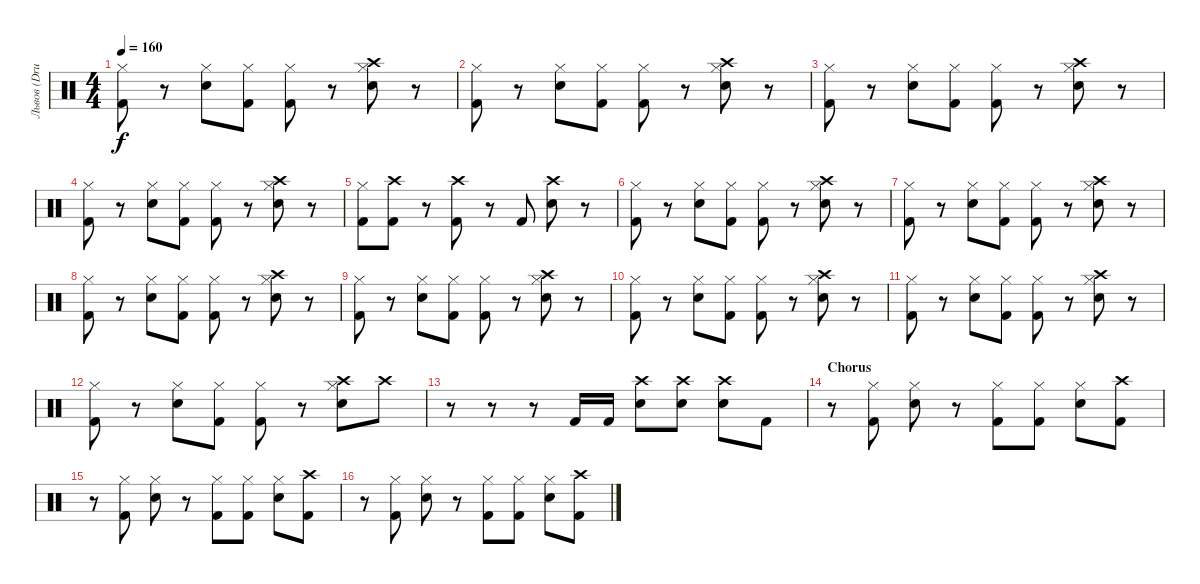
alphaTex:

\track ("Львов (Drums)" "Львов (Dru") {instrument percussion}
\staff {score}
\articulation defaults
\ts (4 4)
\tempo 160
\clef neutral
\ks c
("Kick (hit) 2" "Hi-Hat (closed)").8{dy f} r.8 ("Electric Snare (hit)" "Hi-Hat (closed)").8 ("Kick (hit) 2" "Hi-Hat (closed)").8 ("Kick (hit) 2" "Hi-Hat (closed)").8 r.8 ("Electric Snare (hit)" "Crash high (hit)" "Hi-Hat (closed)").8 r.8 |
("Kick (hit) 2" "Hi-Hat (closed)").8 r.8 ("Electric Snare (hit)" "Hi-Hat (closed)").8 ("Kick (hit) 2" "Hi-Hat (closed)").8 ("Kick (hit) 2" "Hi-Hat (closed)").8 r.8 ("Electric Snare (hit)" "Crash high (hit)" "Hi-Hat (closed)").8 r.8 |
("Kick (hit) 2" "Hi-Hat (closed)").8 r.8 ("Electric Snare (hit)" "Hi-Hat (closed)").8 ("Kick (hit) 2" "Hi-Hat (closed)").8 ("Kick (hit) 2" "Hi-Hat (closed)").8 r.8 ("Electric Snare (hit)" "Crash high (hit)" "Hi-Hat (closed)").8 r.8 |
("Kick (hit) 2" "Hi-Hat (closed)").8 r.8 ("Electric Snare (hit)" "Hi-Hat (closed)").8 ("Kick (hit) 2" "Hi-Hat (closed)").8 ("Kick (hit) 2" "Hi-Hat (closed)").8 r.8 ("Electric Snare (hit)" "Crash high (hit)" "Hi-Hat (closed)").8 r.8 |
("Kick (hit) 2" "Hi-Hat (closed)").8 ("Kick (hit) 2" "Crash high (hit)").8 r.8 ("Kick (hit) 2" "Crash high (hit)").8 r.8 "Kick (hit) 2".8 ("Electric Snare (hit)" "Crash high (hit)").8 r.8 |
("Kick (hit) 2" "Hi-Hat (closed)").8 r.8 ("Electric Snare (hit)" "Hi-Hat (closed)").8 ("Kick (hit) 2" "Hi-Hat (closed)").8 ("Kick (hit) 2" "Hi-Hat (closed)").8 r.8 ("Electric Snare (hit)" "Crash high (hit)" "Hi-Hat (closed)").8 r.8 |
("Kick (hit) 2" "Hi-Hat (closed)").8 r.8 ("Electric Snare (hit)" "Hi-Hat (closed)").8 ("Kick (hit) 2" "Hi-Hat (closed)").8 ("Kick (hit) 2" "Hi-Hat (closed)").8 r.8 ("Electric Snare (hit)" "Crash high (hit)" "Hi-Hat (closed)").8 r.8 |
("Kick (hit) 2" "Hi-Hat (closed)").8 r.8 ("Electric Snare (hit)" "Hi-Hat (closed)").8 ("Kick (hit) 2" "Hi-Hat (closed)").8 ("Kick (hit) 2" "Hi-Hat (closed)").8 r.8 ("Electric Snare (hit)" "Crash high (hit)" "Hi-Hat (closed)").8 r.8 |
("Kick (hit) 2" "Hi-Hat (closed)").8 r.8 ("Electric Snare (hit)" "Hi-Hat (closed)").8 ("Kick (hit) 2" "Hi-Hat (closed)").8 ("Kick (hit) 2" "Hi-Hat (closed)").8 r.8 ("Electric Snare (hit)" "Crash high (hit)" "Hi-Hat (closed)").8 r.8 |
("Kick (hit) 2" "Hi-Hat (closed)").8 r.8 ("Electric Snare (hit)" "Hi-Hat (closed)").8 ("Kick (hit) 2" "Hi-Hat (closed)").8 ("Kick (hit) 2" "Hi-Hat (closed)").8 r.8 ("Electric Snare (hit)" "Crash high (hit)" "Hi-Hat (closed)").8 r.8 |
("Kick (hit) 2" "Hi-Hat (closed)").8 r.8 ("Electric Snare (hit)" "Hi-Hat (closed)").8 ("Kick (hit) 2" "Hi-Hat (closed)").8 ("Kick (hit) 2" "Hi-Hat (closed)").8 r.8 ("Electric Snare (hit)" "Crash high (hit)" "Hi-Hat (closed)").8 r.8 |
("Kick (hit) 2" "Hi-Hat (closed)").8 r.8 ("Electric Snare (hit)" "Hi-Hat (closed)").8 ("Kick (hit) 2" "Hi-Hat (closed)").8 ("Kick (hit) 2" "Hi-Hat (closed)").8 r.8 ("Electric Snare (hit)" "Crash high (hit)" "Hi-Hat (closed)").8 "Crash high (hit)".8 |
r.8 r.8 r.8 "Kick (hit) 2".16 "Kick (hit) 2".16 ("Electric Snare (hit)" "Crash high (hit)").8 ("Electric Snare (hit)" "Crash high (hit)").8 ("Electric Snare (hit)" "Crash high (hit)").8 "Kick (hit) 2".8 |
\section ("" "Chorus")
r.8 ("Kick (hit) 2" "Hi-Hat (closed)").8 ("Electric Snare (hit)" "Hi-Hat (closed)").8 r.8 ("Kick (hit) 2" "Hi-Hat (closed)").8 ("Kick (hit) 2" "Hi-Hat (closed)").8 ("Electric Snare (hit)" "Hi-Hat (closed)").8 ("Kick (hit) 2" "Crash high (hit)").8 |
r.8 ("Kick (hit) 2" "Hi-Hat (closed)").8 ("Electric Snare (hit)" "Hi-Hat (closed)").8 r.8 ("Kick (hit) 2" "Hi-Hat (closed)").8 ("Kick (hit) 2" "Hi-Hat (closed)").8 ("Electric Snare (hit)" "Hi-Hat (closed)").8 ("Kick (hit) 2" "Crash high (hit)").8 |
r.8 ("Kick (hit) 2" "Hi-Hat (closed)").8 ("Electric Snare (hit)" "Hi-Hat (closed)").8 r.8 ("Kick (hit) 2" "Hi-Hat (closed)").8 ("Kick (hit) 2" "Hi-Hat (closed)").8 ("Electric Snare (hit)" "Hi-Hat (closed)").8 ("Kick (hit) 2" "Crash high (hit)").8
